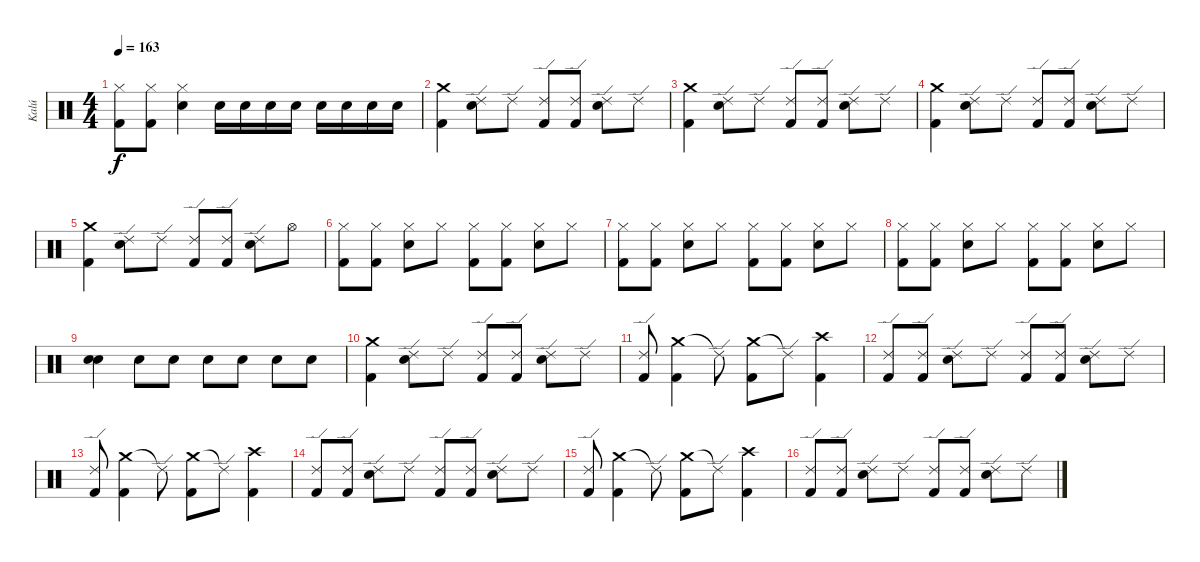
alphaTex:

\track ("Kalú" "Kalú") {instrument percussion}
\staff {score}
\articulation defaults
\ts (4 4)
\tempo 163
\clef neutral
\ks c
("Hi-Hat (closed)" "Kick (hit) 2").8{dy f} ("Hi-Hat (closed)" "Kick (hit) 2").8 ("Hi-Hat (closed)" "Snare (hit) 2").4 "Snare (hit) 2".16 "Snare (hit) 2".16 "Snare (hit) 2".16 "Snare (hit) 2".16 "Snare (hit) 2".16 "Snare (hit) 2".16 "Snare (hit) 2".16 "Snare (hit) 2".16 |
("Crash medium (hit)" "Kick (hit) 2").4 ("Ride (edge) 2" "Snare (hit) 2").8 "Ride (edge) 2".8 ("Ride (edge) 2" "Kick (hit) 2").8 ("Ride (edge) 2" "Kick (hit) 2").8 ("Ride (edge) 2" "Snare (hit) 2").8 "Ride (edge) 2".8 |
("Crash medium (hit)" "Kick (hit) 2").4 ("Ride (edge) 2" "Snare (hit) 2").8 "Ride (edge) 2".8 ("Ride (edge) 2" "Kick (hit) 2").8 ("Ride (edge) 2" "Kick (hit) 2").8 ("Ride (edge) 2" "Snare (hit) 2").8 "Ride (edge) 2".8 |
("Crash medium (hit)" "Kick (hit) 2").4 ("Ride (edge) 2" "Snare (hit) 2").8 "Ride (edge) 2".8 ("Ride (edge) 2" "Kick (hit) 2").8 ("Ride (edge) 2" "Kick (hit) 2").8 ("Ride (edge) 2" "Snare (hit) 2").8 "Ride (edge) 2".8 |
("Crash medium (hit)" "Kick (hit) 2").4 ("Ride (edge) 2" "Snare (hit) 2").8 "Ride (edge) 2".8 ("Ride (edge) 2" "Kick (hit) 2").8 ("Ride (edge) 2" "Kick (hit) 2").8 ("Ride (edge) 2" "Snare (hit) 2").8 "Hi-Hat (open)".8 |
("Hi-Hat (closed)" "Kick (hit) 2").8 ("Hi-Hat (closed)" "Kick (hit) 2").8 ("Hi-Hat (closed)" "Snare (hit) 2").8 "Hi-Hat (closed)".8 ("Hi-Hat (closed)" "Kick (hit) 2").8 ("Hi-Hat (closed)" "Kick (hit) 2").8 ("Hi-Hat (closed)" "Snare (hit) 2").8 "Hi-Hat (closed)".8 |
("Hi-Hat (closed)" "Kick (hit) 2").8 ("Hi-Hat (closed)" "Kick (hit) 2").8 ("Hi-Hat (closed)" "Snare (hit) 2").8 "Hi-Hat (closed)".8 ("Hi-Hat (closed)" "Kick (hit) 2").8 ("Hi-Hat (closed)" "Kick (hit) 2").8 ("Hi-Hat (closed)" "Snare (hit) 2").8 "Hi-Hat (closed)".8 |
("Hi-Hat (closed)" "Kick (hit) 2").8 ("Hi-Hat (closed)" "Kick (hit) 2").8 ("Hi-Hat (closed)" "Snare (hit) 2").8 "Hi-Hat (closed)".8 ("Hi-Hat (closed)" "Kick (hit) 2").8 ("Hi-Hat (closed)" "Kick (hit) 2").8 ("Hi-Hat (closed)" "Snare (hit) 2").8 "Hi-Hat (closed)".8 |
("Snare (hit) 2" "Snare (hit) 2").4 "Snare (hit) 2".8 "Snare (hit) 2".8 "Snare (hit) 2".8 "Snare (hit) 2".8 "Snare (hit) 2".8 "Snare (hit) 2".8 |
("Crash medium (hit)" "Kick (hit) 2").4 ("Ride (edge) 2" "Snare (hit) 2").8 "Ride (edge) 2".8 ("Ride (edge) 2" "Kick (hit) 2").8 ("Ride (edge) 2" "Kick (hit) 2").8 ("Ride (edge) 2" "Snare (hit) 2").8 "Ride (edge) 2".8 |
("Ride (edge) 2" "Kick (hit) 2").8 ("Crash medium (hit)" "Kick (hit) 2").4 "Ride (edge) 2"{t}.8 ("Crash medium (hit)" "Kick (hit) 2").8 "Ride (edge) 2"{t}.8 ("Crash high (hit)" "Kick (hit) 2").4 |
("Ride (edge) 2" "Kick (hit) 2").8 ("Ride (edge) 2" "Kick (hit) 2").8 ("Ride (edge) 2" "Snare (hit) 2").8 "Ride (edge) 2".8 ("Ride (edge) 2" "Kick (hit) 2").8 ("Ride (edge) 2" "Kick (hit) 2").8 ("Ride (edge) 2" "Snare (hit) 2").8 "Ride (edge) 2".8 |
("Ride (edge) 2" "Kick (hit) 2").8 ("Crash medium (hit)" "Kick (hit) 2").4 "Ride (edge) 2"{t}.8 ("Crash medium (hit)" "Kick (hit) 2").8 "Ride (edge) 2"{t}.8 ("Crash high (hit)" "Kick (hit) 2").4 |
("Ride (edge) 2" "Kick (hit) 2").8 ("Ride (edge) 2" "Kick (hit) 2").8 ("Ride (edge) 2" "Snare (hit) 2").8 "Ride (edge) 2".8 ("Ride (edge) 2" "Kick (hit) 2").8 ("Ride (edge) 2" "Kick (hit) 2").8 ("Ride (edge) 2" "Snare (hit) 2").8 "Ride (edge) 2".8 |
("Ride (edge) 2" "Kick (hit) 2").8 ("Crash medium (hit)" "Kick (hit) 2").4 "Ride (edge) 2"{t}.8 ("Crash medium (hit)" "Kick (hit) 2").8 "Ride (edge) 2"{t}.8 ("Crash high (hit)" "Kick (hit) 2").4 |
("Ride (edge) 2" "Kick (hit) 2").8 ("Ride (edge) 2" "Kick (hit) 2").8 ("Ride (edge) 2" "Snare (hit) 2").8 "Ride (edge) 2".8 ("Ride (edge) 2" "Kick (hit) 2").8 ("Ride (edge) 2" "Kick (hit) 2").8 ("Ride (edge) 2" "Snare (hit) 2").8 "Ride (edge) 2".8
